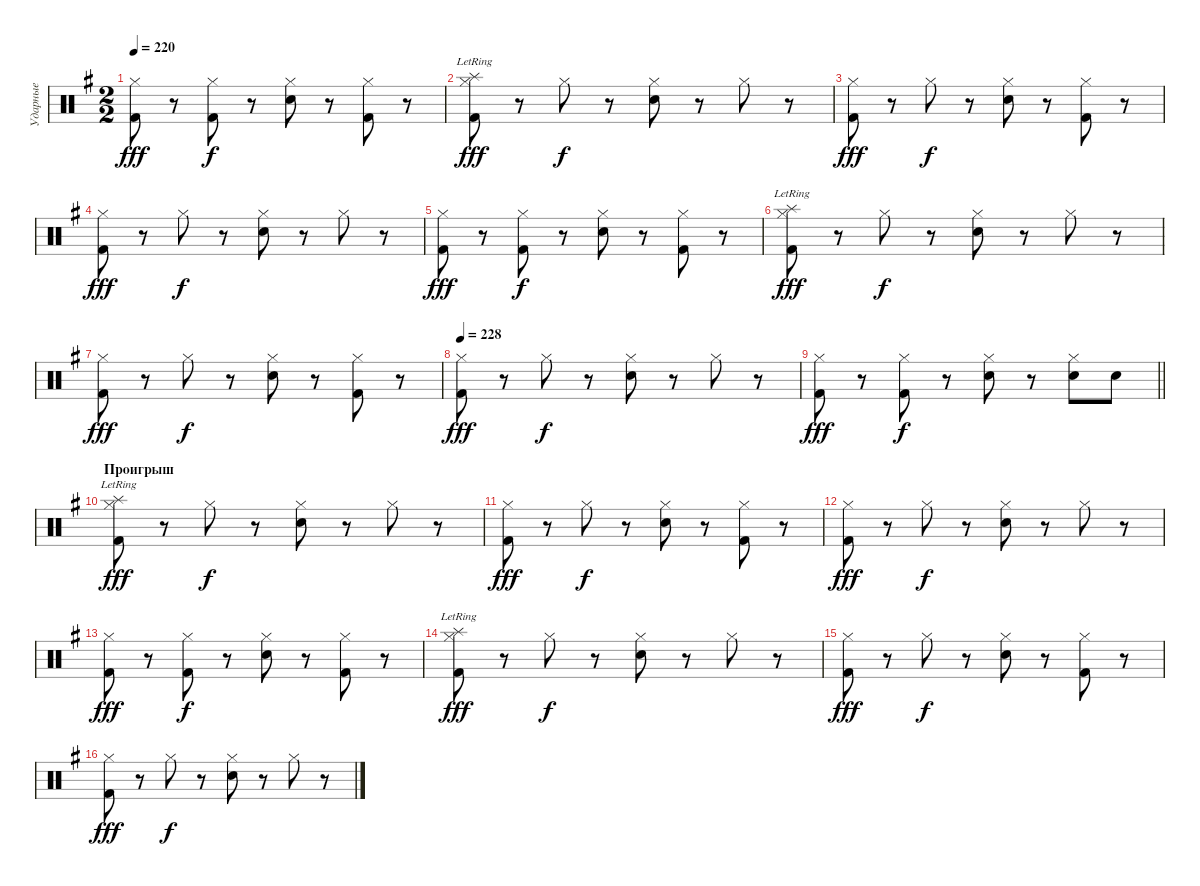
\track ("Ударные" "Ударные") {instrument percussion}
\staff {score}
\articulation defaults
\ts (2 2)
\tempo 220
\clef neutral
\ks eminor
("Hi-Hat (closed)" "Kick (hit) 2").8{dy fff} r.8 ("Hi-Hat (closed)" "Kick (hit) 2").8{dy f} r.8 ("Hi-Hat (closed)" "Snare (hit) 2").8 r.8 ("Hi-Hat (closed)" "Kick (hit) 2").8 r.8 |
("Hi-Hat (closed)" "Splash (hit)"{lr} "Kick (hit) 2").8{dy fff} r.8 "Hi-Hat (closed)".8{dy f} r.8 ("Hi-Hat (closed)" "Snare (hit) 2").8 r.8 "Hi-Hat (closed)".8 r.8 |
("Hi-Hat (closed)" "Kick (hit) 2").8{dy fff} r.8 "Hi-Hat (closed)".8{dy f} r.8 ("Hi-Hat (closed)" "Snare (hit) 2").8 r.8 ("Hi-Hat (closed)" "Kick (hit) 2").8 r.8 |
("Hi-Hat (closed)" "Kick (hit) 2").8{dy fff} r.8 "Hi-Hat (closed)".8{dy f} r.8 ("Hi-Hat (closed)" "Snare (hit) 2").8 r.8 "Hi-Hat (closed)".8 r.8 |
("Hi-Hat (closed)" "Kick (hit) 2").8{dy fff} r.8 ("Hi-Hat (closed)" "Kick (hit) 2").8{dy f} r.8 ("Hi-Hat (closed)" "Snare (hit) 2").8 r.8 ("Hi-Hat (closed)" "Kick (hit) 2").8 r.8 |
("Hi-Hat (closed)" "Splash (hit)"{lr} "Kick (hit) 2").8{dy fff} r.8 "Hi-Hat (closed)".8{dy f} r.8 ("Hi-Hat (closed)" "Snare (hit) 2").8 r.8 "Hi-Hat (closed)".8 r.8 |
("Hi-Hat (closed)" "Kick (hit) 2").8{dy fff} r.8 "Hi-Hat (closed)".8{dy f} r.8 ("Hi-Hat (closed)" "Snare (hit) 2").8 r.8 ("Hi-Hat (closed)" "Kick (hit) 2").8 r.8 |
\tempo 228
("Hi-Hat (closed)" "Kick (hit) 2").8{dy fff} r.8 "Hi-Hat (closed)".8{dy f} r.8 ("Hi-Hat (closed)" "Snare (hit) 2").8 r.8 "Hi-Hat (closed)".8 r.8 |
\barLineRight lightlight
("Hi-Hat (closed)" "Kick (hit) 2").8{dy fff} r.8 ("Hi-Hat (closed)" "Kick (hit) 2").8{dy f} r.8 ("Hi-Hat (closed)" "Snare (hit) 2").8 r.8 ("Hi-Hat (closed)" "Snare (hit) 2").8 "Snare (hit) 2".8 |
\section ("" "Проигрыш")
("Hi-Hat (closed)" "Splash (hit)"{lr} "Kick (hit) 2").8{dy fff} r.8 "Hi-Hat (closed)".8{dy f} r.8 ("Hi-Hat (closed)" "Snare (hit) 2").8 r.8 "Hi-Hat (closed)".8 r.8 |
("Hi-Hat (closed)" "Kick (hit) 2").8{dy fff} r.8 "Hi-Hat (closed)".8{dy f} r.8 ("Hi-Hat (closed)" "Snare (hit) 2").8 r.8 ("Hi-Hat (closed)" "Kick (hit) 2").8 r.8 |
("Hi-Hat (closed)" "Kick (hit) 2").8{dy fff} r.8 "Hi-Hat (closed)".8{dy f} r.8 ("Hi-Hat (closed)" "Snare (hit) 2").8 r.8 "Hi-Hat (closed)".8 r.8 |
("Hi-Hat (closed)" "Kick (hit) 2").8{dy fff} r.8 ("Hi-Hat (closed)" "Kick (hit) 2").8{dy f} r.8 ("Hi-Hat (closed)" "Snare (hit) 2").8 r.8 ("Hi-Hat (closed)" "Kick (hit) 2").8 r.8 |
("Hi-Hat (closed)" "Splash (hit)"{lr} "Kick (hit) 2").8{dy fff} r.8 "Hi-Hat (closed)".8{dy f} r.8 ("Hi-Hat (closed)" "Snare (hit) 2").8 r.8 "Hi-Hat (closed)".8 r.8 |
("Hi-Hat (closed)" "Kick (hit) 2").8{dy fff} r.8 "Hi-Hat (closed)".8{dy f} r.8 ("Hi-Hat (closed)" "Snare (hit) 2").8 r.8 ("Hi-Hat (closed)" "Kick (hit) 2").8 r.8 |
("Hi-Hat (closed)" "Kick (hit) 2").8{dy fff} r.8 "Hi-Hat (closed)".8{dy f} r.8 ("Hi-Hat (closed)" "Snare (hit) 2").8 r.8 "Hi-Hat (closed)".8 r.8
